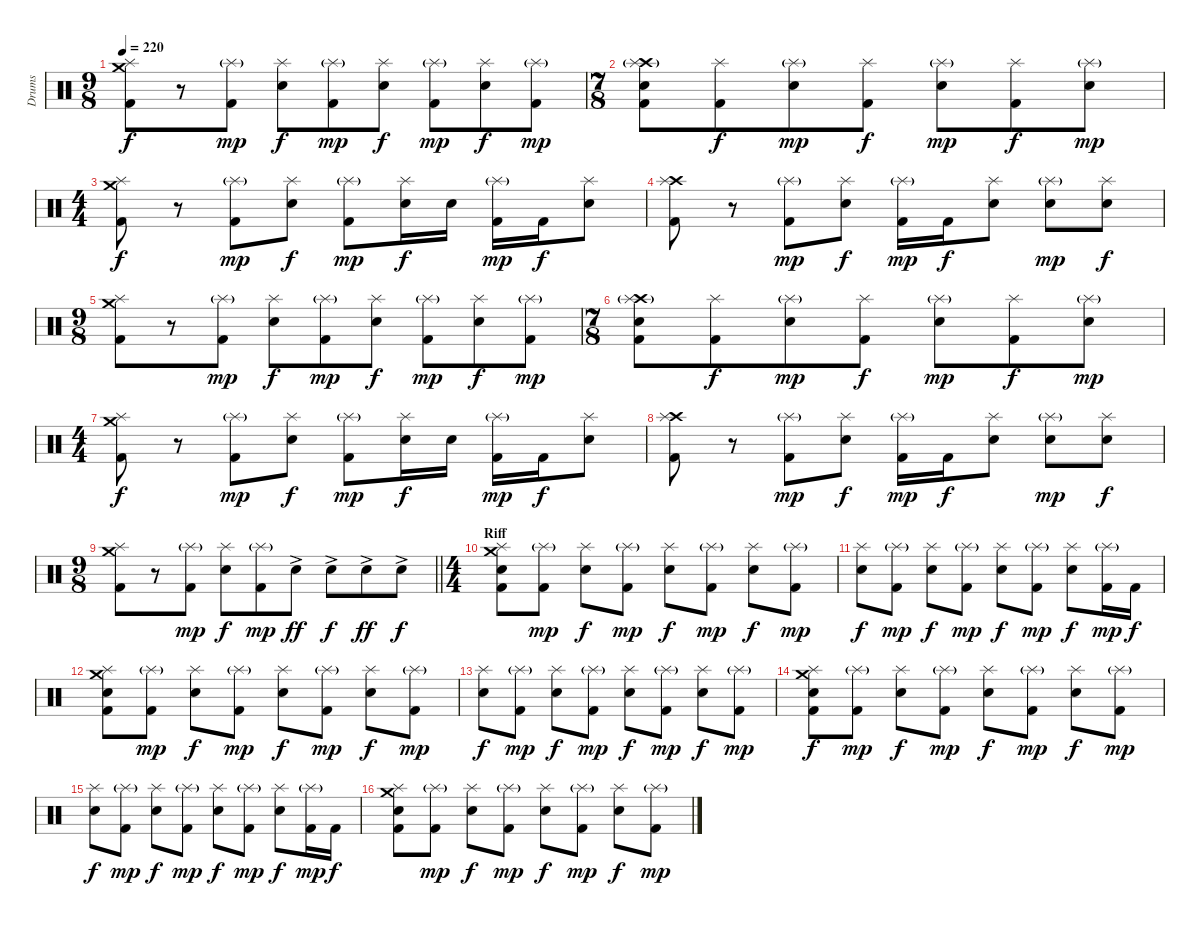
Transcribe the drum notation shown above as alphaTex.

\track ("Drums" "Drums") {instrument percussion}
\staff {score}
\articulation defaults
\ts (9 8)
\tempo 220
\clef neutral
\ks c
("Crash medium (hit)" "Splash (hit)" "Kick (hit) 2").8{dy f} r.8 ("Splash (hit)"{g} "Kick (hit) 2").8{dy mp} ("Splash (hit)" "Electric Snare (hit)").8{dy f} ("Splash (hit)"{g} "Kick (hit) 2").8{dy mp} ("Splash (hit)" "Electric Snare (hit)").8{dy f} ("Splash (hit)"{g} "Kick (hit) 2").8{dy mp} ("Splash (hit)" "Electric Snare (hit)").8{dy f} ("Splash (hit)"{g} "Kick (hit) 2").8{dy mp} |
\ts (7 8)
("Crash high (hit)" "Splash (hit)"{g} "Electric Snare (hit)" "Kick (hit) 2").8 ("Splash (hit)" "Kick (hit) 2").8{dy f} ("Splash (hit)"{g} "Electric Snare (hit)").8{dy mp} ("Splash (hit)" "Kick (hit) 2").8{dy f} ("Splash (hit)"{g} "Electric Snare (hit)").8{dy mp} ("Splash (hit)" "Kick (hit) 2").8{dy f} ("Splash (hit)"{g} "Electric Snare (hit)").8{dy mp} |
\ts (4 4)
("Crash medium (hit)" "Splash (hit)" "Kick (hit) 2").8{dy f} r.8 ("Splash (hit)"{g} "Kick (hit) 2").8{dy mp} ("Splash (hit)" "Electric Snare (hit)").8{dy f} ("Splash (hit)"{g} "Kick (hit) 2").8{dy mp} ("Splash (hit)" "Electric Snare (hit)").16{dy f} "Electric Snare (hit)".16 ("Splash (hit)"{g} "Kick (hit) 2").16{dy mp} "Kick (hit) 2".16{dy f} ("Splash (hit)" "Electric Snare (hit)").8 |
("Crash high (hit)" "Splash (hit)" "Kick (hit) 2").8 r.8 ("Splash (hit)"{g} "Kick (hit) 2").8{dy mp} ("Splash (hit)" "Electric Snare (hit)").8{dy f} ("Splash (hit)"{g} "Kick (hit) 2").16{dy mp} "Kick (hit) 2".16{dy f} ("Splash (hit)" "Electric Snare (hit)").8 ("Splash (hit)"{g} "Electric Snare (hit)").8{dy mp} ("Splash (hit)" "Electric Snare (hit)").8{dy f} |
\ts (9 8)
("Crash medium (hit)" "Splash (hit)" "Kick (hit) 2").8 r.8 ("Splash (hit)"{g} "Kick (hit) 2").8{dy mp} ("Splash (hit)" "Electric Snare (hit)").8{dy f} ("Splash (hit)"{g} "Kick (hit) 2").8{dy mp} ("Splash (hit)" "Electric Snare (hit)").8{dy f} ("Splash (hit)"{g} "Kick (hit) 2").8{dy mp} ("Splash (hit)" "Electric Snare (hit)").8{dy f} ("Splash (hit)"{g} "Kick (hit) 2").8{dy mp} |
\ts (7 8)
("Crash high (hit)" "Splash (hit)"{g} "Electric Snare (hit)" "Kick (hit) 2").8 ("Splash (hit)" "Kick (hit) 2").8{dy f} ("Splash (hit)"{g} "Electric Snare (hit)").8{dy mp} ("Splash (hit)" "Kick (hit) 2").8{dy f} ("Splash (hit)"{g} "Electric Snare (hit)").8{dy mp} ("Splash (hit)" "Kick (hit) 2").8{dy f} ("Splash (hit)"{g} "Electric Snare (hit)").8{dy mp} |
\ts (4 4)
("Crash medium (hit)" "Splash (hit)" "Kick (hit) 2").8{dy f} r.8 ("Splash (hit)"{g} "Kick (hit) 2").8{dy mp} ("Splash (hit)" "Electric Snare (hit)").8{dy f} ("Splash (hit)"{g} "Kick (hit) 2").8{dy mp} ("Splash (hit)" "Electric Snare (hit)").16{dy f} "Electric Snare (hit)".16 ("Splash (hit)"{g} "Kick (hit) 2").16{dy mp} "Kick (hit) 2".16{dy f} ("Splash (hit)" "Electric Snare (hit)").8 |
("Crash high (hit)" "Splash (hit)" "Kick (hit) 2").8 r.8 ("Splash (hit)"{g} "Kick (hit) 2").8{dy mp} ("Splash (hit)" "Electric Snare (hit)").8{dy f} ("Splash (hit)"{g} "Kick (hit) 2").16{dy mp} "Kick (hit) 2".16{dy f} ("Splash (hit)" "Electric Snare (hit)").8 ("Splash (hit)"{g} "Electric Snare (hit)").8{dy mp} ("Splash (hit)" "Electric Snare (hit)").8{dy f} |
\ts (9 8)
\barLineRight lightlight
("Crash medium (hit)" "Splash (hit)" "Kick (hit) 2").8 r.8 ("Splash (hit)"{g} "Kick (hit) 2").8{dy mp} ("Splash (hit)" "Electric Snare (hit)").8{dy f} ("Splash (hit)"{g} "Kick (hit) 2").8{dy mp} "Electric Snare (hit)"{ac}.8{dy ff} "Electric Snare (hit)"{ac}.8{dy f} "Electric Snare (hit)"{ac}.8{dy ff} "Electric Snare (hit)"{ac}.8{dy f} |
\ts (4 4)
\section ("" "Riff")
("Crash medium (hit)" "Splash (hit)" "Electric Snare (hit)" "Kick (hit) 2").8 ("Splash (hit)"{g} "Kick (hit) 2").8{dy mp} ("Splash (hit)" "Electric Snare (hit)").8{dy f} ("Splash (hit)"{g} "Kick (hit) 2").8{dy mp} ("Splash (hit)" "Electric Snare (hit)").8{dy f} ("Splash (hit)"{g} "Kick (hit) 2").8{dy mp} ("Splash (hit)" "Electric Snare (hit)").8{dy f} ("Splash (hit)"{g} "Kick (hit) 2").8{dy mp} |
("Splash (hit)" "Electric Snare (hit)").8{dy f} ("Splash (hit)"{g} "Kick (hit) 2").8{dy mp} ("Splash (hit)" "Electric Snare (hit)").8{dy f} ("Splash (hit)"{g} "Kick (hit) 2").8{dy mp} ("Splash (hit)" "Electric Snare (hit)").8{dy f} ("Splash (hit)"{g} "Kick (hit) 2").8{dy mp} ("Splash (hit)" "Electric Snare (hit)").8{dy f} ("Splash (hit)"{g} "Kick (hit) 2").16{dy mp} "Kick (hit) 2".16{dy f} |
("Crash medium (hit)" "Splash (hit)" "Electric Snare (hit)" "Kick (hit) 2").8 ("Splash (hit)"{g} "Kick (hit) 2").8{dy mp} ("Splash (hit)" "Electric Snare (hit)").8{dy f} ("Splash (hit)"{g} "Kick (hit) 2").8{dy mp} ("Splash (hit)" "Electric Snare (hit)").8{dy f} ("Splash (hit)"{g} "Kick (hit) 2").8{dy mp} ("Splash (hit)" "Electric Snare (hit)").8{dy f} ("Splash (hit)"{g} "Kick (hit) 2").8{dy mp} |
("Splash (hit)" "Electric Snare (hit)").8{dy f} ("Splash (hit)"{g} "Kick (hit) 2").8{dy mp} ("Splash (hit)" "Electric Snare (hit)").8{dy f} ("Splash (hit)"{g} "Kick (hit) 2").8{dy mp} ("Splash (hit)" "Electric Snare (hit)").8{dy f} ("Splash (hit)"{g} "Kick (hit) 2").8{dy mp} ("Splash (hit)" "Electric Snare (hit)").8{dy f} ("Splash (hit)"{g} "Kick (hit) 2").8{dy mp} |
("Crash medium (hit)" "Splash (hit)" "Electric Snare (hit)" "Kick (hit) 2").8{dy f} ("Splash (hit)"{g} "Kick (hit) 2").8{dy mp} ("Splash (hit)" "Electric Snare (hit)").8{dy f} ("Splash (hit)"{g} "Kick (hit) 2").8{dy mp} ("Splash (hit)" "Electric Snare (hit)").8{dy f} ("Splash (hit)"{g} "Kick (hit) 2").8{dy mp} ("Splash (hit)" "Electric Snare (hit)").8{dy f} ("Splash (hit)"{g} "Kick (hit) 2").8{dy mp} |
("Splash (hit)" "Electric Snare (hit)").8{dy f} ("Splash (hit)"{g} "Kick (hit) 2").8{dy mp} ("Splash (hit)" "Electric Snare (hit)").8{dy f} ("Splash (hit)"{g} "Kick (hit) 2").8{dy mp} ("Splash (hit)" "Electric Snare (hit)").8{dy f} ("Splash (hit)"{g} "Kick (hit) 2").8{dy mp} ("Splash (hit)" "Electric Snare (hit)").8{dy f} ("Splash (hit)"{g} "Kick (hit) 2").16{dy mp} "Kick (hit) 2".16{dy f} |
("Crash medium (hit)" "Splash (hit)" "Electric Snare (hit)" "Kick (hit) 2").8 ("Splash (hit)"{g} "Kick (hit) 2").8{dy mp} ("Splash (hit)" "Electric Snare (hit)").8{dy f} ("Splash (hit)"{g} "Kick (hit) 2").8{dy mp} ("Splash (hit)" "Electric Snare (hit)").8{dy f} ("Splash (hit)"{g} "Kick (hit) 2").8{dy mp} ("Splash (hit)" "Electric Snare (hit)").8{dy f} ("Splash (hit)"{g} "Kick (hit) 2").8{dy mp}
